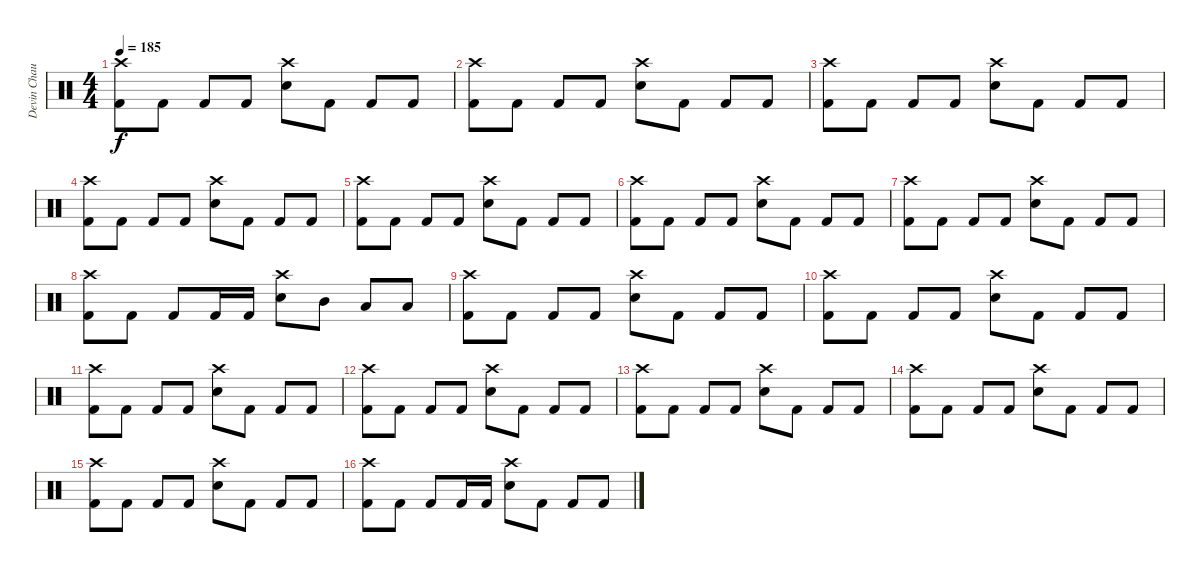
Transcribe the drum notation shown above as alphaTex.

\track ("Devin Chaulk" "Devin Chau") {instrument percussion}
\staff {score}
\articulation defaults
\ts (4 4)
\tempo 185
\clef neutral
\ks c
("Crash high (hit)" "Kick (hit) 2").8{dy f} "Kick (hit) 2".8 "Kick (hit) 2".8 "Kick (hit) 2".8 ("Crash high (hit)" "Snare (hit) 2").8 "Kick (hit) 2".8 "Kick (hit) 2".8 "Kick (hit) 2".8 |
("Crash high (hit)" "Kick (hit) 2").8 "Kick (hit) 2".8 "Kick (hit) 2".8 "Kick (hit) 2".8 ("Crash high (hit)" "Snare (hit) 2").8 "Kick (hit) 2".8 "Kick (hit) 2".8 "Kick (hit) 2".8 |
("Crash high (hit)" "Kick (hit) 2").8 "Kick (hit) 2".8 "Kick (hit) 2".8 "Kick (hit) 2".8 ("Crash high (hit)" "Snare (hit) 2").8 "Kick (hit) 2".8 "Kick (hit) 2".8 "Kick (hit) 2".8 |
("Crash high (hit)" "Kick (hit) 2").8 "Kick (hit) 2".8 "Kick (hit) 2".8 "Kick (hit) 2".8 ("Crash high (hit)" "Snare (hit) 2").8 "Kick (hit) 2".8 "Kick (hit) 2".8 "Kick (hit) 2".8 |
("Crash high (hit)" "Kick (hit) 2").8 "Kick (hit) 2".8 "Kick (hit) 2".8 "Kick (hit) 2".8 ("Crash high (hit)" "Snare (hit) 2").8 "Kick (hit) 2".8 "Kick (hit) 2".8 "Kick (hit) 2".8 |
("Crash high (hit)" "Kick (hit) 2").8 "Kick (hit) 2".8 "Kick (hit) 2".8 "Kick (hit) 2".8 ("Crash high (hit)" "Snare (hit) 2").8 "Kick (hit) 2".8 "Kick (hit) 2".8 "Kick (hit) 2".8 |
("Crash high (hit)" "Kick (hit) 2").8 "Kick (hit) 2".8 "Kick (hit) 2".8 "Kick (hit) 2".8 ("Crash high (hit)" "Snare (hit) 2").8 "Kick (hit) 2".8 "Kick (hit) 2".8 "Kick (hit) 2".8 |
("Crash high (hit)" "Kick (hit) 2").8 "Kick (hit) 2".8 "Kick (hit) 2".8 "Kick (hit) 2".16 "Kick (hit) 2".16 ("Crash high (hit)" "Snare (hit) 2").8 "Mid Tom (hit)".8 "Low Tom (hit)".8 "Low Floor Tom (hit)".8 |
("Crash high (hit)" "Kick (hit) 2").8 "Kick (hit) 2".8 "Kick (hit) 2".8 "Kick (hit) 2".8 ("Crash high (hit)" "Snare (hit) 2").8 "Kick (hit) 2".8 "Kick (hit) 2".8 "Kick (hit) 2".8 |
("Crash high (hit)" "Kick (hit) 2").8 "Kick (hit) 2".8 "Kick (hit) 2".8 "Kick (hit) 2".8 ("Crash high (hit)" "Snare (hit) 2").8 "Kick (hit) 2".8 "Kick (hit) 2".8 "Kick (hit) 2".8 |
("Crash high (hit)" "Kick (hit) 2").8 "Kick (hit) 2".8 "Kick (hit) 2".8 "Kick (hit) 2".8 ("Crash high (hit)" "Snare (hit) 2").8 "Kick (hit) 2".8 "Kick (hit) 2".8 "Kick (hit) 2".8 |
("Crash high (hit)" "Kick (hit) 2").8 "Kick (hit) 2".8 "Kick (hit) 2".8 "Kick (hit) 2".8 ("Crash high (hit)" "Snare (hit) 2").8 "Kick (hit) 2".8 "Kick (hit) 2".8 "Kick (hit) 2".8 |
("Crash high (hit)" "Kick (hit) 2").8 "Kick (hit) 2".8 "Kick (hit) 2".8 "Kick (hit) 2".8 ("Crash high (hit)" "Snare (hit) 2").8 "Kick (hit) 2".8 "Kick (hit) 2".8 "Kick (hit) 2".8 |
("Crash high (hit)" "Kick (hit) 2").8 "Kick (hit) 2".8 "Kick (hit) 2".8 "Kick (hit) 2".8 ("Crash high (hit)" "Snare (hit) 2").8 "Kick (hit) 2".8 "Kick (hit) 2".8 "Kick (hit) 2".8 |
("Crash high (hit)" "Kick (hit) 2").8 "Kick (hit) 2".8 "Kick (hit) 2".8 "Kick (hit) 2".8 ("Crash high (hit)" "Snare (hit) 2").8 "Kick (hit) 2".8 "Kick (hit) 2".8 "Kick (hit) 2".8 |
("Crash high (hit)" "Kick (hit) 2").8 "Kick (hit) 2".8 "Kick (hit) 2".8 "Kick (hit) 2".16 "Kick (hit) 2".16 ("Crash high (hit)" "Snare (hit) 2").8 "Kick (hit) 2".8 "Kick (hit) 2".8 "Kick (hit) 2".8
